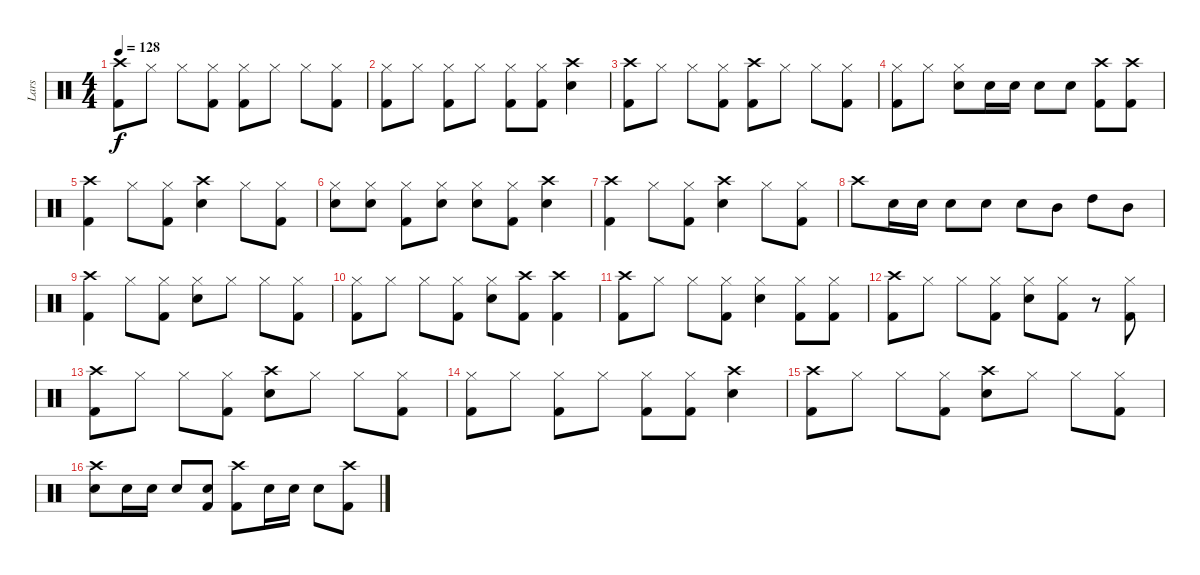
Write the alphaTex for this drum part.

\track ("Lars" "Lars") {instrument percussion}
\staff {score}
\articulation defaults
\ts (4 4)
\tempo 128
\clef neutral
\ks c
("Crash high (hit)" "Kick (hit) 2").8{dy f} "Hi-Hat (closed)".8 "Hi-Hat (closed)".8 ("Hi-Hat (closed)" "Kick (hit) 2").8 ("Hi-Hat (closed)" "Kick (hit) 2").8 "Hi-Hat (closed)".8 "Hi-Hat (closed)".8 ("Hi-Hat (closed)" "Kick (hit) 2").8 |
("Hi-Hat (closed)" "Kick (hit) 2").8 "Hi-Hat (closed)".8 ("Hi-Hat (closed)" "Kick (hit) 2").8 "Hi-Hat (closed)".8 ("Hi-Hat (closed)" "Kick (hit) 2").8 ("Hi-Hat (closed)" "Kick (hit) 2").8 ("Crash high (hit)" "Electric Snare (hit)").4 |
("Crash high (hit)" "Kick (hit) 2").8 "Hi-Hat (closed)".8 "Hi-Hat (closed)".8 ("Hi-Hat (closed)" "Kick (hit) 2").8 ("Crash high (hit)" "Kick (hit) 2").8 "Hi-Hat (closed)".8 "Hi-Hat (closed)".8 ("Hi-Hat (closed)" "Kick (hit) 2").8 |
("Hi-Hat (closed)" "Kick (hit) 2").8 "Hi-Hat (closed)".8 ("Hi-Hat (closed)" "Electric Snare (hit)").8 "Electric Snare (hit)".16 "Electric Snare (hit)".16 "Electric Snare (hit)".8 "Electric Snare (hit)".8 ("Crash high (hit)" "Kick (hit) 2").8 ("Crash high (hit)" "Kick (hit) 2").8 |
("Crash high (hit)" "Kick (hit) 2").4 "Hi-Hat (closed)".8 ("Hi-Hat (closed)" "Kick (hit) 2").8 ("Crash high (hit)" "Electric Snare (hit)").4 "Hi-Hat (closed)".8 ("Hi-Hat (closed)" "Kick (hit) 2").8 |
("Hi-Hat (closed)" "Electric Snare (hit)").8 ("Hi-Hat (closed)" "Electric Snare (hit)").8 ("Hi-Hat (closed)" "Kick (hit) 2").8 ("Hi-Hat (closed)" "Electric Snare (hit)").8 ("Hi-Hat (closed)" "Electric Snare (hit)").8 ("Hi-Hat (closed)" "Kick (hit) 2").8 ("Crash high (hit)" "Electric Snare (hit)").4 |
("Crash high (hit)" "Kick (hit) 2").4 "Hi-Hat (closed)".8 ("Hi-Hat (closed)" "Kick (hit) 2").8 ("Crash high (hit)" "Electric Snare (hit)").4 "Hi-Hat (closed)".8 ("Hi-Hat (closed)" "Kick (hit) 2").8 |
"Crash high (hit)".8 "Electric Snare (hit)".16 "Electric Snare (hit)".16 "Electric Snare (hit)".8 "Electric Snare (hit)".8 "Electric Snare (hit)".8 "Mid Tom (hit)".8 "High Tom (hit)".8 "Mid Tom (hit)".8 |
("Crash high (hit)" "Kick (hit) 2").4 "Hi-Hat (closed)".8 ("Hi-Hat (closed)" "Kick (hit) 2").8 ("Hi-Hat (closed)" "Electric Snare (hit)").8 "Hi-Hat (closed)".8 "Hi-Hat (closed)".8 ("Hi-Hat (closed)" "Kick (hit) 2").8 |
("Hi-Hat (closed)" "Kick (hit) 2").8 "Hi-Hat (closed)".8 "Hi-Hat (closed)".8 ("Hi-Hat (closed)" "Kick (hit) 2").8 ("Hi-Hat (closed)" "Electric Snare (hit)").8 ("Crash high (hit)" "Kick (hit) 2").8 ("Crash high (hit)" "Kick (hit) 2").4 |
("Crash high (hit)" "Kick (hit) 2").8 "Hi-Hat (closed)".8 "Hi-Hat (closed)".8 ("Hi-Hat (closed)" "Kick (hit) 2").8 ("Hi-Hat (closed)" "Electric Snare (hit)").4 ("Hi-Hat (closed)" "Kick (hit) 2").8 ("Hi-Hat (closed)" "Kick (hit) 2").8 |
("Crash high (hit)" "Kick (hit) 2").8 "Hi-Hat (closed)".8 "Hi-Hat (closed)".8 ("Hi-Hat (closed)" "Kick (hit) 2").8 ("Hi-Hat (closed)" "Electric Snare (hit)").8 ("Hi-Hat (closed)" "Kick (hit) 2").8 r.8 ("Hi-Hat (closed)" "Kick (hit) 2").8 |
("Crash high (hit)" "Kick (hit) 2").8 "Hi-Hat (closed)".8 "Hi-Hat (closed)".8 ("Hi-Hat (closed)" "Kick (hit) 2").8 ("Crash high (hit)" "Electric Snare (hit)").8 "Hi-Hat (closed)".8 "Hi-Hat (closed)".8 ("Hi-Hat (closed)" "Kick (hit) 2").8 |
("Hi-Hat (closed)" "Kick (hit) 2").8 "Hi-Hat (closed)".8 ("Hi-Hat (closed)" "Kick (hit) 2").8 "Hi-Hat (closed)".8 ("Hi-Hat (closed)" "Kick (hit) 2").8 ("Hi-Hat (closed)" "Kick (hit) 2").8 ("Crash high (hit)" "Electric Snare (hit)").4 |
("Crash high (hit)" "Kick (hit) 2").8 "Hi-Hat (closed)".8 "Hi-Hat (closed)".8 ("Hi-Hat (closed)" "Kick (hit) 2").8 ("Crash high (hit)" "Electric Snare (hit)").8 "Hi-Hat (closed)".8 "Hi-Hat (closed)".8 ("Hi-Hat (closed)" "Kick (hit) 2").8 |
("Crash high (hit)" "Electric Snare (hit)").8 "Electric Snare (hit)".16 "Electric Snare (hit)".16 "Electric Snare (hit)".8 ("Kick (hit) 2" "Electric Snare (hit)").8 ("Crash high (hit)" "Kick (hit) 2").8 "Electric Snare (hit)".16 "Electric Snare (hit)".16 "Snare (hit)".8 ("Crash high (hit)" "Kick (hit) 2").8
